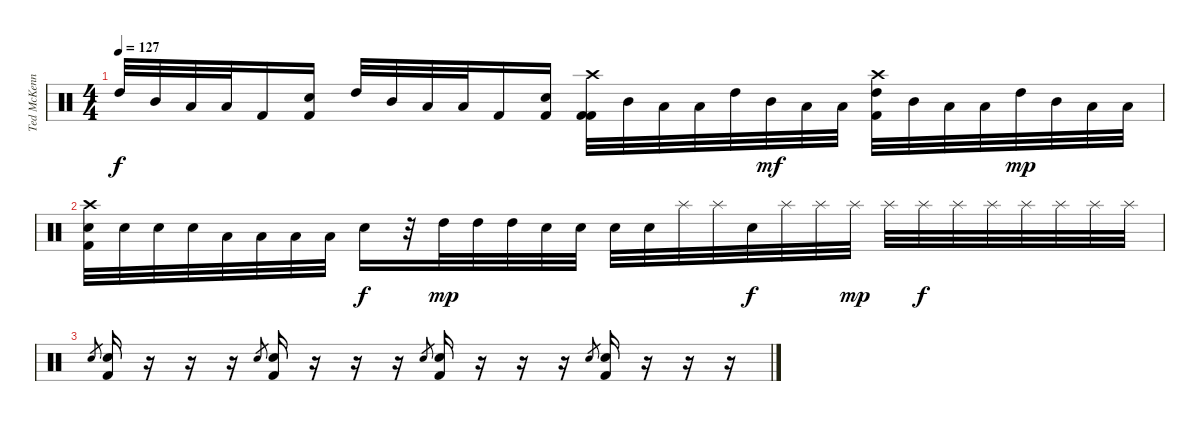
\track ("Ted McKenna" "Ted McKenn") {instrument percussion}
\staff {score}
\articulation defaults
\ts (4 4)
\tempo 127
\clef neutral
\ks c "High Tom (hit)".32{dy f} "Mid Tom (hit)".32 "Low Tom (hit)".32 "Low Tom (hit)".32 "Kick (hit) 2".16
("Snare (hit) 2" "Kick (hit) 2").16 "High Tom (hit)".32 "Mid Tom (hit)".32 "Low Tom (hit)".32 "Low Tom (hit)".32 "Kick (hit) 2".16 ("Snare (hit) 2" "Kick (hit) 2").16 ("Crash high (hit)" "Kick (hit) 2" "Kick (hit) 2").32 "Mid Tom (hit)".32 "Low Tom (hit)".32 "Low Tom (hit)".32 "High Tom (hit)".32 "Mid Tom (hit)".32{dy mf} "Low Tom (hit)".32 "Low Tom (hit)".32 ("Crash high (hit)" "High Tom (hit)" "Kick (hit) 2").32 "Mid Tom (hit)".32 "Low Tom (hit)".32 "Low Tom (hit)".32 "High Tom (hit)".32{dy mp} "Mid Tom (hit)".32 "Low Tom (hit)".32 "Low Tom (hit)".32 |
("Crash high (hit)" "Snare (hit) 2" "Kick (hit) 2").32 "Snare (hit) 2".32 "Snare (hit) 2".32 "Snare (hit) 2".32 "Low Tom (hit)".32 "Low Tom (hit)".32 "Low Tom (hit)".32 "Low Tom (hit)".32 "Electric Snare (hit)".16{dy f} r.32 "High Tom (hit)".32{dy mp} "High Tom (hit)".32 "High Tom (hit)".32 "Electric Snare (hit)".32 "Electric Snare (hit)".32 "Electric Snare (hit)".32 "Electric Snare (hit)".32 "Splash (hit)".32 "Splash (hit)".32 "Electric Snare (hit)".32{dy f} "Splash (hit)".32 "Splash (hit)".32 "Splash (hit)".32{dy mp} "Splash (hit)".32 "Splash (hit)".32{dy f} "Splash (hit)".32 "Splash (hit)".32 "Splash (hit)".32 "Splash (hit)".32 "Splash (hit)".32 "Splash (hit)".32 |
"Snare (hit) 2".8{gr} ("Snare (hit) 2" "Kick (hit) 2").16 r.16 r.16 r.16 "Snare (hit) 2".8{gr} ("Snare (hit) 2" "Kick (hit) 2").16 r.16 r.16 r.16 "Snare (hit) 2".8{gr} ("Snare (hit) 2" "Kick (hit) 2").16 r.16 r.16 r.16 "Snare (hit) 2".8{gr} ("Snare (hit) 2" "Kick (hit) 2").16 r.16 r.16 r.16
